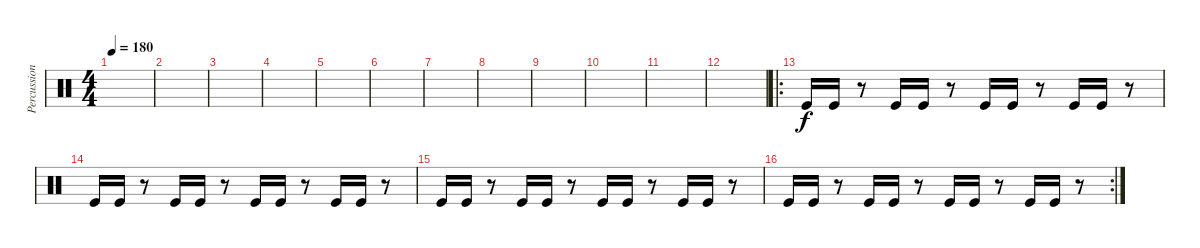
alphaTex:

\track ("Percussion" "Percussion") {instrument percussion}
\staff {score}
\articulation defaults
\ts (4 4)
\tempo 180
\clef neutral
\ks c
|
|
|
|
|
|
|
|
|
|
|
|
\ro "Kick (hit)".16 "Kick (hit)".16
r.8 "Kick (hit)".16 "Kick (hit)".16 r.8 "Kick (hit)".16 "Kick (hit)".16 r.8 "Kick (hit)".16 "Kick (hit)".16 r.8 |
"Kick (hit)".16 "Kick (hit)".16 r.8 "Kick (hit)".16 "Kick (hit)".16 r.8 "Kick (hit)".16 "Kick (hit)".16 r.8 "Kick (hit)".16 "Kick (hit)".16 r.8 |
"Kick (hit)".16 "Kick (hit)".16 r.8 "Kick (hit)".16 "Kick (hit)".16 r.8 "Kick (hit)".16 "Kick (hit)".16 r.8 "Kick (hit)".16 "Kick (hit)".16 r.8 |
\rc 2 "Kick (hit)".16 "Kick (hit)".16
r.8 "Kick (hit)".16 "Kick (hit)".16 r.8 "Kick (hit)".16 "Kick (hit)".16 r.8 "Kick (hit)".16 "Kick (hit)".16 r.8
